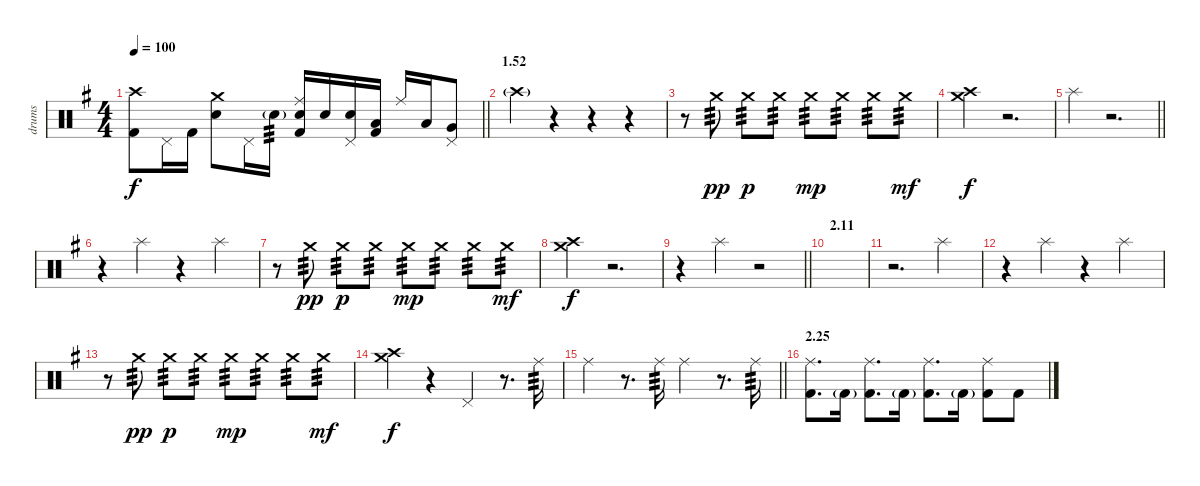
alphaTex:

\track ("drums" "drums") {instrument percussion}
\staff {score}
\articulation defaults
\ts (4 4)
\tempo 100
\clef neutral
\barLineRight lightlight
\ks g
("Crash high (hit)" "Kick (hit) 2").8{dy f} "Pedal Hi-Hat (hit)".16 "Kick (hit) 2".16 ("Crash medium (hit)" "Electric Snare (hit)").8 "Pedal Hi-Hat (hit)".16 "Electric Snare (hit)"{g}.16{tp 3} ("Ride (middle)" "Electric Snare (hit)" "Kick (hit) 2").16 "Electric Snare (hit)".16 ("Pedal Hi-Hat (hit)" "Electric Snare (hit)").16 ("Low Tom (hit)" "Kick (hit) 2").16 "Ride (middle)".16 "Low Tom (hit)".16 ("Pedal Hi-Hat (hit)" "Very Low Tom (hit)").8 |
\section ("" "1.52")
"Crash high (hit)"{g}.4 r.4 r.4 r.4 |
r.8 "Crash medium (hit)".8{tp 3 dy pp} "Crash medium (hit)".8{tp 3 dy p} "Crash medium (hit)".8{tp 3} "Crash medium (hit)".8{tp 3 dy mp} "Crash medium (hit)".8{tp 3} "Crash medium (hit)".8{tp 3} "Crash medium (hit)".8{tp 3 dy mf} |
("Crash high (hit)" "Crash medium (hit)").4{dy f} r.2{d} |
\barLineRight lightlight "Splash (hit)".4
r.2{d} |
r.4 "Splash (hit)".4 r.4 "Splash (hit)".4 |
r.8 "Crash medium (hit)".8{tp 3 dy pp} "Crash medium (hit)".8{tp 3 dy p} "Crash medium (hit)".8{tp 3} "Crash medium (hit)".8{tp 3 dy mp} "Crash medium (hit)".8{tp 3} "Crash medium (hit)".8{tp 3} "Crash medium (hit)".8{tp 3 dy mf} |
("Crash high (hit)" "Crash medium (hit)").4{dy f} r.2{d} |
\barLineRight lightlight
r.4 "Splash (hit)".4 r.2 |
\section ("" "2.11")
|
r.2{d} "Splash (hit)".4 |
r.4 "Splash (hit)".4 r.4 "Splash (hit)".4 |
r.8 "Crash medium (hit)".8{tp 3 dy pp} "Crash medium (hit)".8{tp 3 dy p} "Crash medium (hit)".8{tp 3} "Crash medium (hit)".8{tp 3 dy mp} "Crash medium (hit)".8{tp 3} "Crash medium (hit)".8{tp 3} "Crash medium (hit)".8{tp 3 dy mf} |
("Crash medium (hit)" "Crash high (hit)").4{dy f} r.4 "Pedal Hi-Hat (hit)".4 r.8{d} "Ride (middle)".16{tp 3} |
\barLineRight lightlight "Ride (middle)".4
r.8{d} "Ride (middle)".16{tp 3} "Ride (middle)".4 r.8{d} "Ride (middle)".16{tp 3} |
\section ("" "2.25")
("Ride (middle)" "Kick (hit) 2").8{d} "Kick (hit) 2"{g}.16 ("Ride (middle)" "Kick (hit) 2").8{d} "Kick (hit) 2"{g}.16 ("Ride (middle)" "Kick (hit) 2").8{d} "Kick (hit) 2"{g}.16 ("Ride (middle)" "Kick (hit) 2").8 "Kick (hit) 2".8
